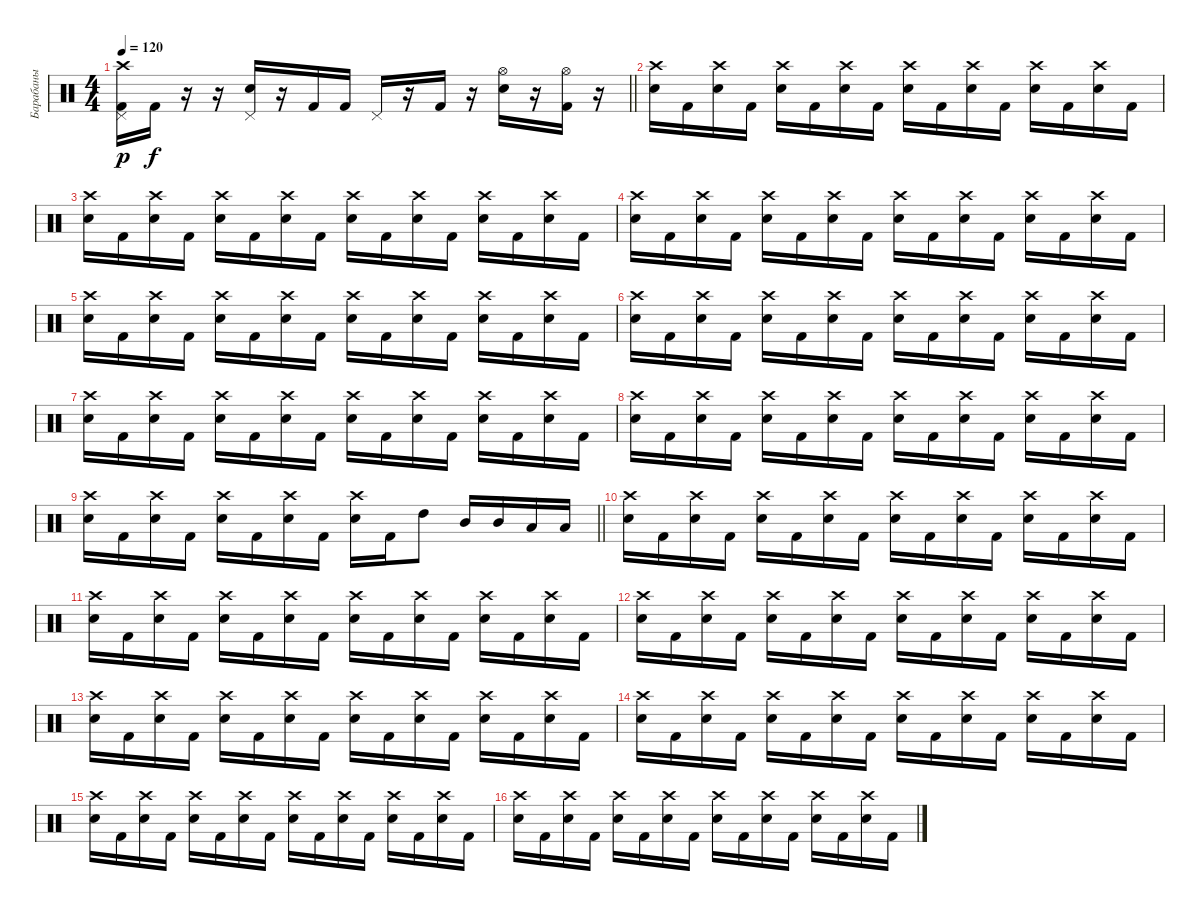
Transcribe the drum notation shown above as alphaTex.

\track ("Барабаны" "Барабаны") {instrument percussion}
\staff {score}
\articulation defaults
\ts (4 4)
\tempo 120
\clef neutral
\barLineRight lightlight
\ks c
("Crash high (hit)" "Pedal Hi-Hat (hit)" "Kick (hit) 2").16{dy p} "Kick (hit) 2".16{dy f} r.16 r.16 ("Pedal Hi-Hat (hit)" "Electric Snare (hit)").16 r.16 "Kick (hit) 2".16 "Kick (hit) 2".16 "Pedal Hi-Hat (hit)".16 r.16 "Kick (hit) 2".16 r.16 ("Hi-Hat (open)" "Electric Snare (hit)").16 r.16 ("Hi-Hat (open)" "Kick (hit) 2").16 r.16 |
\section ("" "")
("Crash high (hit)" "Electric Snare (hit)").16 "Kick (hit) 2".16 ("Crash high (hit)" "Electric Snare (hit)").16 "Kick (hit) 2".16 ("Crash high (hit)" "Electric Snare (hit)").16 "Kick (hit) 2".16 ("Crash high (hit)" "Electric Snare (hit)").16 "Kick (hit) 2".16 ("Crash high (hit)" "Electric Snare (hit)").16 "Kick (hit) 2".16 ("Crash high (hit)" "Electric Snare (hit)").16 "Kick (hit) 2".16 ("Crash high (hit)" "Electric Snare (hit)").16 "Kick (hit) 2".16 ("Crash high (hit)" "Electric Snare (hit)").16 "Kick (hit) 2".16 |
("Crash high (hit)" "Electric Snare (hit)").16 "Kick (hit) 2".16 ("Crash high (hit)" "Electric Snare (hit)").16 "Kick (hit) 2".16 ("Crash high (hit)" "Electric Snare (hit)").16 "Kick (hit) 2".16 ("Crash high (hit)" "Electric Snare (hit)").16 "Kick (hit) 2".16 ("Crash high (hit)" "Electric Snare (hit)").16 "Kick (hit) 2".16 ("Crash high (hit)" "Electric Snare (hit)").16 "Kick (hit) 2".16 ("Crash high (hit)" "Electric Snare (hit)").16 "Kick (hit) 2".16 ("Crash high (hit)" "Electric Snare (hit)").16 "Kick (hit) 2".16 |
("Crash high (hit)" "Electric Snare (hit)").16 "Kick (hit) 2".16 ("Crash high (hit)" "Electric Snare (hit)").16 "Kick (hit) 2".16 ("Crash high (hit)" "Electric Snare (hit)").16 "Kick (hit) 2".16 ("Crash high (hit)" "Electric Snare (hit)").16 "Kick (hit) 2".16 ("Crash high (hit)" "Electric Snare (hit)").16 "Kick (hit) 2".16 ("Crash high (hit)" "Electric Snare (hit)").16 "Kick (hit) 2".16 ("Crash high (hit)" "Electric Snare (hit)").16 "Kick (hit) 2".16 ("Crash high (hit)" "Electric Snare (hit)").16 "Kick (hit) 2".16 |
("Crash high (hit)" "Electric Snare (hit)").16 "Kick (hit) 2".16 ("Crash high (hit)" "Electric Snare (hit)").16 "Kick (hit) 2".16 ("Crash high (hit)" "Electric Snare (hit)").16 "Kick (hit) 2".16 ("Crash high (hit)" "Electric Snare (hit)").16 "Kick (hit) 2".16 ("Crash high (hit)" "Electric Snare (hit)").16 "Kick (hit) 2".16 ("Crash high (hit)" "Electric Snare (hit)").16 "Kick (hit) 2".16 ("Crash high (hit)" "Electric Snare (hit)").16 "Kick (hit) 2".16 ("Crash high (hit)" "Electric Snare (hit)").16 "Kick (hit) 2".16 |
("Crash high (hit)" "Electric Snare (hit)").16 "Kick (hit) 2".16 ("Crash high (hit)" "Electric Snare (hit)").16 "Kick (hit) 2".16 ("Crash high (hit)" "Electric Snare (hit)").16 "Kick (hit) 2".16 ("Crash high (hit)" "Electric Snare (hit)").16 "Kick (hit) 2".16 ("Crash high (hit)" "Electric Snare (hit)").16 "Kick (hit) 2".16 ("Crash high (hit)" "Electric Snare (hit)").16 "Kick (hit) 2".16 ("Crash high (hit)" "Electric Snare (hit)").16 "Kick (hit) 2".16 ("Crash high (hit)" "Electric Snare (hit)").16 "Kick (hit) 2".16 |
("Crash high (hit)" "Electric Snare (hit)").16 "Kick (hit) 2".16 ("Crash high (hit)" "Electric Snare (hit)").16 "Kick (hit) 2".16 ("Crash high (hit)" "Electric Snare (hit)").16 "Kick (hit) 2".16 ("Crash high (hit)" "Electric Snare (hit)").16 "Kick (hit) 2".16 ("Crash high (hit)" "Electric Snare (hit)").16 "Kick (hit) 2".16 ("Crash high (hit)" "Electric Snare (hit)").16 "Kick (hit) 2".16 ("Crash high (hit)" "Electric Snare (hit)").16 "Kick (hit) 2".16 ("Crash high (hit)" "Electric Snare (hit)").16 "Kick (hit) 2".16 |
("Crash high (hit)" "Electric Snare (hit)").16 "Kick (hit) 2".16 ("Crash high (hit)" "Electric Snare (hit)").16 "Kick (hit) 2".16 ("Crash high (hit)" "Electric Snare (hit)").16 "Kick (hit) 2".16 ("Crash high (hit)" "Electric Snare (hit)").16 "Kick (hit) 2".16 ("Crash high (hit)" "Electric Snare (hit)").16 "Kick (hit) 2".16 ("Crash high (hit)" "Electric Snare (hit)").16 "Kick (hit) 2".16 ("Crash high (hit)" "Electric Snare (hit)").16 "Kick (hit) 2".16 ("Crash high (hit)" "Electric Snare (hit)").16 "Kick (hit) 2".16 |
\barLineRight lightlight
("Crash high (hit)" "Electric Snare (hit)").16 "Kick (hit) 2".16 ("Crash high (hit)" "Electric Snare (hit)").16 "Kick (hit) 2".16 ("Crash high (hit)" "Electric Snare (hit)").16 "Kick (hit) 2".16 ("Crash high (hit)" "Electric Snare (hit)").16 "Kick (hit) 2".16 ("Crash high (hit)" "Electric Snare (hit)").16 "Kick (hit) 2".16 "High Tom (hit)".8 "Mid Tom (hit)".16 "Mid Tom (hit)".16 "Low Tom (hit)".16 "Low Tom (hit)".16 |
("Crash high (hit)" "Electric Snare (hit)").16 "Kick (hit) 2".16 ("Crash high (hit)" "Electric Snare (hit)").16 "Kick (hit) 2".16 ("Crash high (hit)" "Electric Snare (hit)").16 "Kick (hit) 2".16 ("Crash high (hit)" "Electric Snare (hit)").16 "Kick (hit) 2".16 ("Crash high (hit)" "Electric Snare (hit)").16 "Kick (hit) 2".16 ("Crash high (hit)" "Electric Snare (hit)").16 "Kick (hit) 2".16 ("Crash high (hit)" "Electric Snare (hit)").16 "Kick (hit) 2".16 ("Crash high (hit)" "Electric Snare (hit)").16 "Kick (hit) 2".16 |
("Crash high (hit)" "Electric Snare (hit)").16 "Kick (hit) 2".16 ("Crash high (hit)" "Electric Snare (hit)").16 "Kick (hit) 2".16 ("Crash high (hit)" "Electric Snare (hit)").16 "Kick (hit) 2".16 ("Crash high (hit)" "Electric Snare (hit)").16 "Kick (hit) 2".16 ("Crash high (hit)" "Electric Snare (hit)").16 "Kick (hit) 2".16 ("Crash high (hit)" "Electric Snare (hit)").16 "Kick (hit) 2".16 ("Crash high (hit)" "Electric Snare (hit)").16 "Kick (hit) 2".16 ("Crash high (hit)" "Electric Snare (hit)").16 "Kick (hit) 2".16 |
("Crash high (hit)" "Electric Snare (hit)").16 "Kick (hit) 2".16 ("Crash high (hit)" "Electric Snare (hit)").16 "Kick (hit) 2".16 ("Crash high (hit)" "Electric Snare (hit)").16 "Kick (hit) 2".16 ("Crash high (hit)" "Electric Snare (hit)").16 "Kick (hit) 2".16 ("Crash high (hit)" "Electric Snare (hit)").16 "Kick (hit) 2".16 ("Crash high (hit)" "Electric Snare (hit)").16 "Kick (hit) 2".16 ("Crash high (hit)" "Electric Snare (hit)").16 "Kick (hit) 2".16 ("Crash high (hit)" "Electric Snare (hit)").16 "Kick (hit) 2".16 |
("Crash high (hit)" "Electric Snare (hit)").16 "Kick (hit) 2".16 ("Crash high (hit)" "Electric Snare (hit)").16 "Kick (hit) 2".16 ("Crash high (hit)" "Electric Snare (hit)").16 "Kick (hit) 2".16 ("Crash high (hit)" "Electric Snare (hit)").16 "Kick (hit) 2".16 ("Crash high (hit)" "Electric Snare (hit)").16 "Kick (hit) 2".16 ("Crash high (hit)" "Electric Snare (hit)").16 "Kick (hit) 2".16 ("Crash high (hit)" "Electric Snare (hit)").16 "Kick (hit) 2".16 ("Crash high (hit)" "Electric Snare (hit)").16 "Kick (hit) 2".16 |
("Crash high (hit)" "Electric Snare (hit)").16 "Kick (hit) 2".16 ("Crash high (hit)" "Electric Snare (hit)").16 "Kick (hit) 2".16 ("Crash high (hit)" "Electric Snare (hit)").16 "Kick (hit) 2".16 ("Crash high (hit)" "Electric Snare (hit)").16 "Kick (hit) 2".16 ("Crash high (hit)" "Electric Snare (hit)").16 "Kick (hit) 2".16 ("Crash high (hit)" "Electric Snare (hit)").16 "Kick (hit) 2".16 ("Crash high (hit)" "Electric Snare (hit)").16 "Kick (hit) 2".16 ("Crash high (hit)" "Electric Snare (hit)").16 "Kick (hit) 2".16 |
("Crash high (hit)" "Electric Snare (hit)").16 "Kick (hit) 2".16 ("Crash high (hit)" "Electric Snare (hit)").16 "Kick (hit) 2".16 ("Crash high (hit)" "Electric Snare (hit)").16 "Kick (hit) 2".16 ("Crash high (hit)" "Electric Snare (hit)").16 "Kick (hit) 2".16 ("Crash high (hit)" "Electric Snare (hit)").16 "Kick (hit) 2".16 ("Crash high (hit)" "Electric Snare (hit)").16 "Kick (hit) 2".16 ("Crash high (hit)" "Electric Snare (hit)").16 "Kick (hit) 2".16 ("Crash high (hit)" "Electric Snare (hit)").16 "Kick (hit) 2".16 |
("Crash high (hit)" "Electric Snare (hit)").16 "Kick (hit) 2".16 ("Crash high (hit)" "Electric Snare (hit)").16 "Kick (hit) 2".16 ("Crash high (hit)" "Electric Snare (hit)").16 "Kick (hit) 2".16 ("Crash high (hit)" "Electric Snare (hit)").16 "Kick (hit) 2".16 ("Crash high (hit)" "Electric Snare (hit)").16 "Kick (hit) 2".16 ("Crash high (hit)" "Electric Snare (hit)").16 "Kick (hit) 2".16 ("Crash high (hit)" "Electric Snare (hit)").16 "Kick (hit) 2".16 ("Crash high (hit)" "Electric Snare (hit)").16 "Kick (hit) 2".16
